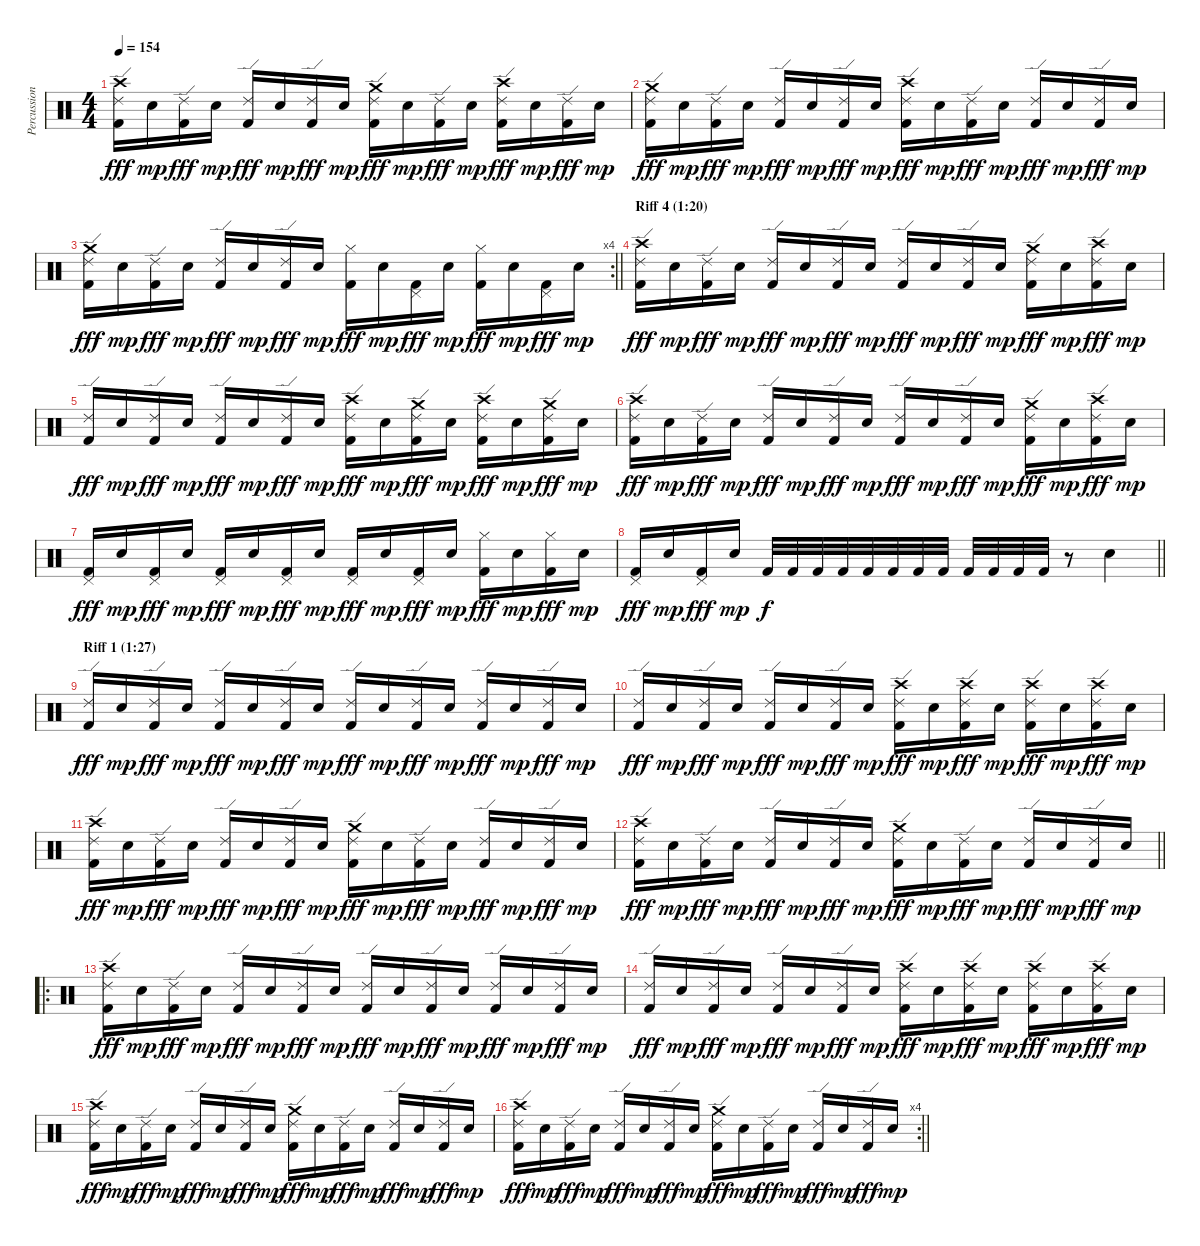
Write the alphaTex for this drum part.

\track ("Percussion" "Percussion") {instrument percussion}
\staff {score}
\articulation defaults
\ts (4 4)
\tempo 154
\clef neutral
\ks c
("Crash high (hit)" "Ride (edge) 2" "Kick (hit) 2").16{dy fff} "Electric Snare (hit)".16{dy mp} ("Ride (edge) 2" "Kick (hit) 2").16{dy fff} "Electric Snare (hit)".16{dy mp} ("Ride (edge) 2" "Kick (hit) 2").16{dy fff} "Electric Snare (hit)".16{dy mp} ("Ride (edge) 2" "Kick (hit) 2").16{dy fff} "Electric Snare (hit)".16{dy mp} ("Crash medium (hit)" "Ride (edge) 2" "Kick (hit) 2").16{dy fff} "Electric Snare (hit)".16{dy mp} ("Ride (edge) 2" "Kick (hit) 2").16{dy fff} "Electric Snare (hit)".16{dy mp} ("Crash high (hit)" "Ride (edge) 2" "Kick (hit) 2").16{dy fff} "Electric Snare (hit)".16{dy mp} ("Ride (edge) 2" "Kick (hit) 2").16{dy fff} "Electric Snare (hit)".16{dy mp} |
("Crash medium (hit)" "Ride (edge) 2" "Kick (hit) 2").16{dy fff} "Electric Snare (hit)".16{dy mp} ("Ride (edge) 2" "Kick (hit) 2").16{dy fff} "Electric Snare (hit)".16{dy mp} ("Ride (edge) 2" "Kick (hit) 2").16{dy fff} "Electric Snare (hit)".16{dy mp} ("Ride (edge) 2" "Kick (hit) 2").16{dy fff} "Electric Snare (hit)".16{dy mp} ("Crash high (hit)" "Ride (edge) 2" "Kick (hit) 2").16{dy fff} "Electric Snare (hit)".16{dy mp} ("Ride (edge) 2" "Kick (hit) 2").16{dy fff} "Electric Snare (hit)".16{dy mp} ("Ride (edge) 2" "Kick (hit) 2").16{dy fff} "Electric Snare (hit)".16{dy mp} ("Ride (edge) 2" "Kick (hit) 2").16{dy fff} "Electric Snare (hit)".16{dy mp} |
\rc 4
\barLineRight lightlight
("Crash medium (hit)" "Ride (edge) 2" "Kick (hit) 2").16{dy fff} "Electric Snare (hit)".16{dy mp} ("Ride (edge) 2" "Kick (hit) 2").16{dy fff} "Electric Snare (hit)".16{dy mp} ("Ride (edge) 2" "Kick (hit) 2").16{dy fff} "Electric Snare (hit)".16{dy mp} ("Ride (edge) 2" "Kick (hit) 2").16{dy fff} "Electric Snare (hit)".16{dy mp} ("Hi-Hat (closed)" "Kick (hit) 2").16{dy fff} "Electric Snare (hit)".16{dy mp} ("Pedal Hi-Hat (hit)" "Kick (hit) 2").16{dy fff} "Electric Snare (hit)".16{dy mp} ("Hi-Hat (closed)" "Kick (hit) 2").16{dy fff} "Electric Snare (hit)".16{dy mp} ("Pedal Hi-Hat (hit)" "Kick (hit) 2").16{dy fff} "Electric Snare (hit)".16{dy mp} |
\section ("" "Riff 4 (1:20)")
("Crash high (hit)" "Ride (edge) 2" "Kick (hit) 2").16{dy fff} "Electric Snare (hit)".16{dy mp} ("Ride (edge) 2" "Kick (hit) 2").16{dy fff} "Electric Snare (hit)".16{dy mp} ("Ride (edge) 2" "Kick (hit) 2").16{dy fff} "Electric Snare (hit)".16{dy mp} ("Ride (edge) 2" "Kick (hit) 2").16{dy fff} "Electric Snare (hit)".16{dy mp} ("Ride (edge) 2" "Kick (hit) 2").16{dy fff} "Electric Snare (hit)".16{dy mp} ("Ride (edge) 2" "Kick (hit) 2").16{dy fff} "Electric Snare (hit)".16{dy mp} ("Crash medium (hit)" "Ride (edge) 2" "Kick (hit) 2").16{dy fff} "Electric Snare (hit)".16{dy mp} ("Crash high (hit)" "Ride (edge) 2" "Kick (hit) 2").16{dy fff} "Electric Snare (hit)".16{dy mp} |
("Ride (edge) 2" "Kick (hit) 2").16{dy fff} "Electric Snare (hit)".16{dy mp} ("Ride (edge) 2" "Kick (hit) 2").16{dy fff} "Electric Snare (hit)".16{dy mp} ("Ride (edge) 2" "Kick (hit) 2").16{dy fff} "Electric Snare (hit)".16{dy mp} ("Ride (edge) 2" "Kick (hit) 2").16{dy fff} "Electric Snare (hit)".16{dy mp} ("Crash high (hit)" "Ride (edge) 2" "Kick (hit) 2").16{dy fff} "Electric Snare (hit)".16{dy mp} ("Crash medium (hit)" "Ride (edge) 2" "Kick (hit) 2").16{dy fff} "Electric Snare (hit)".16{dy mp} ("Crash high (hit)" "Ride (edge) 2" "Kick (hit) 2").16{dy fff} "Electric Snare (hit)".16{dy mp} ("Crash medium (hit)" "Ride (edge) 2" "Kick (hit) 2").16{dy fff} "Electric Snare (hit)".16{dy mp} |
("Crash high (hit)" "Ride (edge) 2" "Kick (hit) 2").16{dy fff} "Electric Snare (hit)".16{dy mp} ("Ride (edge) 2" "Kick (hit) 2").16{dy fff} "Electric Snare (hit)".16{dy mp} ("Ride (edge) 2" "Kick (hit) 2").16{dy fff} "Electric Snare (hit)".16{dy mp} ("Ride (edge) 2" "Kick (hit) 2").16{dy fff} "Electric Snare (hit)".16{dy mp} ("Ride (edge) 2" "Kick (hit) 2").16{dy fff} "Electric Snare (hit)".16{dy mp} ("Ride (edge) 2" "Kick (hit) 2").16{dy fff} "Electric Snare (hit)".16{dy mp} ("Crash medium (hit)" "Ride (edge) 2" "Kick (hit) 2").16{dy fff} "Electric Snare (hit)".16{dy mp} ("Crash high (hit)" "Ride (edge) 2" "Kick (hit) 2").16{dy fff} "Electric Snare (hit)".16{dy mp} |
("Pedal Hi-Hat (hit)" "Kick (hit) 2").16{dy fff} "Electric Snare (hit)".16{dy mp} ("Pedal Hi-Hat (hit)" "Kick (hit) 2").16{dy fff} "Electric Snare (hit)".16{dy mp} ("Pedal Hi-Hat (hit)" "Kick (hit) 2").16{dy fff} "Electric Snare (hit)".16{dy mp} ("Pedal Hi-Hat (hit)" "Kick (hit) 2").16{dy fff} "Electric Snare (hit)".16{dy mp} ("Pedal Hi-Hat (hit)" "Kick (hit) 2").16{dy fff} "Electric Snare (hit)".16{dy mp} ("Pedal Hi-Hat (hit)" "Kick (hit) 2").16{dy fff} "Electric Snare (hit)".16{dy mp} ("Hi-Hat (closed)" "Kick (hit) 2").16{dy fff} "Electric Snare (hit)".16{dy mp} ("Hi-Hat (closed)" "Kick (hit) 2").16{dy fff} "Electric Snare (hit)".16{dy mp} |
\barLineRight lightlight
("Pedal Hi-Hat (hit)" "Kick (hit) 2").16{dy fff} "Electric Snare (hit)".16{dy mp} ("Pedal Hi-Hat (hit)" "Kick (hit) 2").16{dy fff} "Electric Snare (hit)".16{dy mp} "Kick (hit) 2".32{dy f} "Kick (hit) 2".32 "Kick (hit) 2".32 "Kick (hit) 2".32 "Kick (hit) 2".32 "Kick (hit) 2".32 "Kick (hit) 2".32 "Kick (hit) 2".32 "Kick (hit) 2".32 "Kick (hit) 2".32 "Kick (hit) 2".32 "Kick (hit) 2".32 r.8 "Electric Snare (hit)".4 |
\section ("" "Riff 1 (1:27)")
("Ride (edge) 2" "Kick (hit) 2").16{dy fff} "Electric Snare (hit)".16{dy mp} ("Ride (edge) 2" "Kick (hit) 2").16{dy fff} "Electric Snare (hit)".16{dy mp} ("Ride (edge) 2" "Kick (hit) 2").16{dy fff} "Electric Snare (hit)".16{dy mp} ("Ride (edge) 2" "Kick (hit) 2").16{dy fff} "Electric Snare (hit)".16{dy mp} ("Ride (edge) 2" "Kick (hit) 2").16{dy fff} "Electric Snare (hit)".16{dy mp} ("Ride (edge) 2" "Kick (hit) 2").16{dy fff} "Electric Snare (hit)".16{dy mp} ("Ride (edge) 2" "Kick (hit) 2").16{dy fff} "Electric Snare (hit)".16{dy mp} ("Ride (edge) 2" "Kick (hit) 2").16{dy fff} "Electric Snare (hit)".16{dy mp} |
("Ride (edge) 2" "Kick (hit) 2").16{dy fff} "Electric Snare (hit)".16{dy mp} ("Ride (edge) 2" "Kick (hit) 2").16{dy fff} "Electric Snare (hit)".16{dy mp} ("Ride (edge) 2" "Kick (hit) 2").16{dy fff} "Electric Snare (hit)".16{dy mp} ("Ride (edge) 2" "Kick (hit) 2").16{dy fff} "Electric Snare (hit)".16{dy mp} ("Crash high (hit)" "Ride (edge) 2" "Kick (hit) 2").16{dy fff} "Electric Snare (hit)".16{dy mp} ("Crash high (hit)" "Ride (edge) 2" "Kick (hit) 2").16{dy fff} "Electric Snare (hit)".16{dy mp} ("Crash high (hit)" "Ride (edge) 2" "Kick (hit) 2").16{dy fff} "Electric Snare (hit)".16{dy mp} ("Crash high (hit)" "Ride (edge) 2" "Kick (hit) 2").16{dy fff} "Electric Snare (hit)".16{dy mp} |
("Crash high (hit)" "Ride (edge) 2" "Kick (hit) 2").16{dy fff} "Electric Snare (hit)".16{dy mp} ("Ride (edge) 2" "Kick (hit) 2").16{dy fff} "Electric Snare (hit)".16{dy mp} ("Ride (edge) 2" "Kick (hit) 2").16{dy fff} "Electric Snare (hit)".16{dy mp} ("Ride (edge) 2" "Kick (hit) 2").16{dy fff} "Electric Snare (hit)".16{dy mp} ("Crash medium (hit)" "Ride (edge) 2" "Kick (hit) 2").16{dy fff} "Electric Snare (hit)".16{dy mp} ("Ride (edge) 2" "Kick (hit) 2").16{dy fff} "Electric Snare (hit)".16{dy mp} ("Ride (edge) 2" "Kick (hit) 2").16{dy fff} "Electric Snare (hit)".16{dy mp} ("Ride (edge) 2" "Kick (hit) 2").16{dy fff} "Electric Snare (hit)".16{dy mp} |
\barLineRight lightlight
("Crash high (hit)" "Ride (edge) 2" "Kick (hit) 2").16{dy fff} "Electric Snare (hit)".16{dy mp} ("Ride (edge) 2" "Kick (hit) 2").16{dy fff} "Electric Snare (hit)".16{dy mp} ("Ride (edge) 2" "Kick (hit) 2").16{dy fff} "Electric Snare (hit)".16{dy mp} ("Ride (edge) 2" "Kick (hit) 2").16{dy fff} "Electric Snare (hit)".16{dy mp} ("Crash medium (hit)" "Ride (edge) 2" "Kick (hit) 2").16{dy fff} "Electric Snare (hit)".16{dy mp} ("Ride (edge) 2" "Kick (hit) 2").16{dy fff} "Electric Snare (hit)".16{dy mp} ("Ride (edge) 2" "Kick (hit) 2").16{dy fff} "Electric Snare (hit)".16{dy mp} ("Ride (edge) 2" "Kick (hit) 2").16{dy fff} "Electric Snare (hit)".16{dy mp} |
\ro
("Crash high (hit)" "Ride (edge) 2" "Kick (hit) 2").16{dy fff} "Electric Snare (hit)".16{dy mp} ("Ride (edge) 2" "Kick (hit) 2").16{dy fff} "Electric Snare (hit)".16{dy mp} ("Ride (edge) 2" "Kick (hit) 2").16{dy fff} "Electric Snare (hit)".16{dy mp} ("Ride (edge) 2" "Kick (hit) 2").16{dy fff} "Electric Snare (hit)".16{dy mp} ("Ride (edge) 2" "Kick (hit) 2").16{dy fff} "Electric Snare (hit)".16{dy mp} ("Ride (edge) 2" "Kick (hit) 2").16{dy fff} "Electric Snare (hit)".16{dy mp} ("Ride (edge) 2" "Kick (hit) 2").16{dy fff} "Electric Snare (hit)".16{dy mp} ("Ride (edge) 2" "Kick (hit) 2").16{dy fff} "Electric Snare (hit)".16{dy mp} |
("Ride (edge) 2" "Kick (hit) 2").16{dy fff} "Electric Snare (hit)".16{dy mp} ("Ride (edge) 2" "Kick (hit) 2").16{dy fff} "Electric Snare (hit)".16{dy mp} ("Ride (edge) 2" "Kick (hit) 2").16{dy fff} "Electric Snare (hit)".16{dy mp} ("Ride (edge) 2" "Kick (hit) 2").16{dy fff} "Electric Snare (hit)".16{dy mp} ("Crash high (hit)" "Ride (edge) 2" "Kick (hit) 2").16{dy fff} "Electric Snare (hit)".16{dy mp} ("Crash high (hit)" "Ride (edge) 2" "Kick (hit) 2").16{dy fff} "Electric Snare (hit)".16{dy mp} ("Crash high (hit)" "Ride (edge) 2" "Kick (hit) 2").16{dy fff} "Electric Snare (hit)".16{dy mp} ("Crash high (hit)" "Ride (edge) 2" "Kick (hit) 2").16{dy fff} "Electric Snare (hit)".16{dy mp} |
("Crash high (hit)" "Ride (edge) 2" "Kick (hit) 2").16{dy fff} "Electric Snare (hit)".16{dy mp} ("Ride (edge) 2" "Kick (hit) 2").16{dy fff} "Electric Snare (hit)".16{dy mp} ("Ride (edge) 2" "Kick (hit) 2").16{dy fff} "Electric Snare (hit)".16{dy mp} ("Ride (edge) 2" "Kick (hit) 2").16{dy fff} "Electric Snare (hit)".16{dy mp} ("Crash medium (hit)" "Ride (edge) 2" "Kick (hit) 2").16{dy fff} "Electric Snare (hit)".16{dy mp} ("Ride (edge) 2" "Kick (hit) 2").16{dy fff} "Electric Snare (hit)".16{dy mp} ("Ride (edge) 2" "Kick (hit) 2").16{dy fff} "Electric Snare (hit)".16{dy mp} ("Ride (edge) 2" "Kick (hit) 2").16{dy fff} "Electric Snare (hit)".16{dy mp} |
\rc 4
\barLineRight lightlight
("Crash high (hit)" "Ride (edge) 2" "Kick (hit) 2").16{dy fff} "Electric Snare (hit)".16{dy mp} ("Ride (edge) 2" "Kick (hit) 2").16{dy fff} "Electric Snare (hit)".16{dy mp} ("Ride (edge) 2" "Kick (hit) 2").16{dy fff} "Electric Snare (hit)".16{dy mp} ("Ride (edge) 2" "Kick (hit) 2").16{dy fff} "Electric Snare (hit)".16{dy mp} ("Crash medium (hit)" "Ride (edge) 2" "Kick (hit) 2").16{dy fff} "Electric Snare (hit)".16{dy mp} ("Ride (edge) 2" "Kick (hit) 2").16{dy fff} "Electric Snare (hit)".16{dy mp} ("Ride (edge) 2" "Kick (hit) 2").16{dy fff} "Electric Snare (hit)".16{dy mp} ("Ride (edge) 2" "Kick (hit) 2").16{dy fff} "Electric Snare (hit)".16{dy mp}
